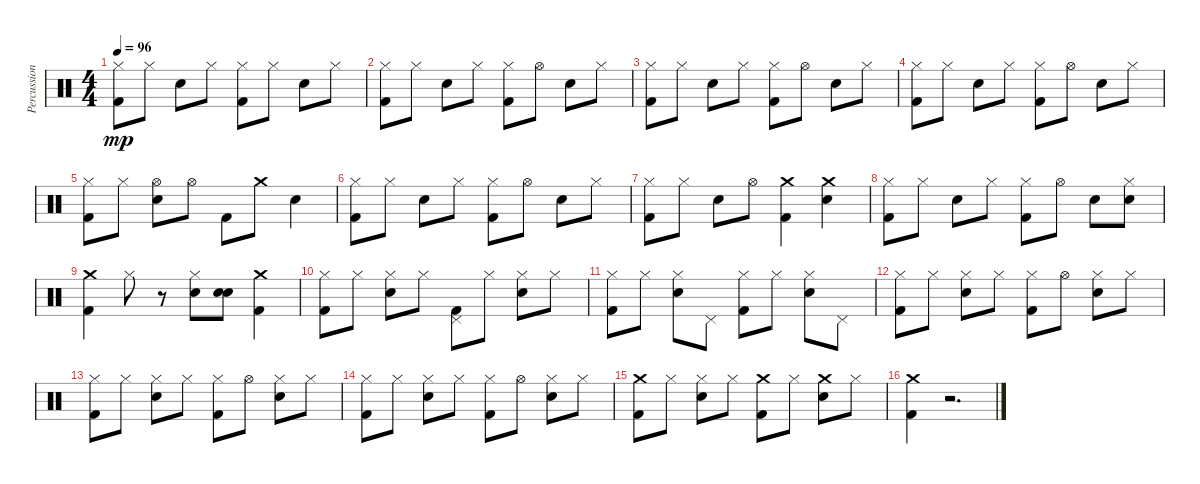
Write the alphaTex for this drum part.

\track ("Percussion" "Percussion") {instrument percussion}
\staff {score}
\articulation defaults
\ts (4 4)
\tempo 96
\clef neutral
\ks c
("Hi-Hat (closed)" "Kick (hit) 2").8{dy mp} "Hi-Hat (closed)".8 "Snare (hit) 2".8 "Hi-Hat (closed)".8 ("Hi-Hat (closed)" "Kick (hit) 2").8 "Hi-Hat (closed)".8 "Snare (hit) 2".8 "Hi-Hat (closed)".8 |
("Hi-Hat (closed)" "Kick (hit) 2").8 "Hi-Hat (closed)".8 "Snare (hit) 2".8 "Hi-Hat (closed)".8 ("Hi-Hat (closed)" "Kick (hit) 2").8 "Hi-Hat (open)".8 "Snare (hit) 2".8 "Hi-Hat (closed)".8 |
("Hi-Hat (closed)" "Kick (hit) 2").8 "Hi-Hat (closed)".8 "Snare (hit) 2".8 "Hi-Hat (closed)".8 ("Hi-Hat (closed)" "Kick (hit) 2").8 "Hi-Hat (open)".8 "Snare (hit) 2".8 "Hi-Hat (closed)".8 |
("Hi-Hat (closed)" "Kick (hit) 2").8 "Hi-Hat (closed)".8 "Snare (hit) 2".8 "Hi-Hat (closed)".8 ("Hi-Hat (closed)" "Kick (hit) 2").8 "Hi-Hat (open)".8 "Snare (hit) 2".8 "Hi-Hat (closed)".8 |
("Hi-Hat (closed)" "Kick (hit) 2").8 "Hi-Hat (closed)".8 ("Hi-Hat (open)" "Snare (hit) 2").8 "Hi-Hat (open)".8 "Kick (hit) 2".8 "Crash medium (hit)".8 "Snare (hit) 2".4 |
("Hi-Hat (closed)" "Kick (hit) 2").8 "Hi-Hat (closed)".8 "Snare (hit) 2".8 "Hi-Hat (closed)".8 ("Hi-Hat (closed)" "Kick (hit) 2").8 "Hi-Hat (open)".8 "Snare (hit) 2".8 "Hi-Hat (closed)".8 |
("Hi-Hat (closed)" "Kick (hit) 2").8 "Hi-Hat (closed)".8 "Snare (hit) 2".8 "Hi-Hat (open)".8 ("Crash medium (hit)" "Kick (hit) 2").4 ("Crash medium (hit)" "Snare (hit) 2").4 |
("Hi-Hat (closed)" "Kick (hit) 2").8 "Hi-Hat (closed)".8 "Snare (hit) 2".8 "Hi-Hat (closed)".8 ("Hi-Hat (closed)" "Kick (hit) 2").8 "Hi-Hat (open)".8 "Snare (hit) 2".8 ("Hi-Hat (closed)" "Snare (hit) 2").8 |
("Crash medium (hit)" "Kick (hit) 2").4 "Hi-Hat (closed)".8 r.8 ("Hi-Hat (closed)" "Snare (hit) 2").8 ("Snare (hit) 2" "Snare (hit) 2").8 ("Crash medium (hit)" "Kick (hit) 2").4 |
("Hi-Hat (closed)" "Kick (hit) 2").8 "Hi-Hat (closed)".8 ("Hi-Hat (closed)" "Snare (hit) 2").8 "Hi-Hat (closed)".8 ("Pedal Hi-Hat (hit)" "Kick (hit) 2").8 "Hi-Hat (closed)".8 ("Hi-Hat (closed)" "Snare (hit) 2").8 "Hi-Hat (closed)".8 |
("Hi-Hat (closed)" "Kick (hit) 2").8 "Hi-Hat (closed)".8 ("Hi-Hat (closed)" "Snare (hit) 2").8 "Pedal Hi-Hat (hit)".8 ("Hi-Hat (closed)" "Kick (hit) 2").8 "Hi-Hat (closed)".8 ("Hi-Hat (closed)" "Snare (hit) 2").8 "Pedal Hi-Hat (hit)".8 |
("Hi-Hat (closed)" "Kick (hit) 2").8 "Hi-Hat (closed)".8 ("Hi-Hat (closed)" "Snare (hit) 2").8 "Hi-Hat (closed)".8 ("Hi-Hat (closed)" "Kick (hit) 2").8 "Hi-Hat (open)".8 ("Hi-Hat (closed)" "Snare (hit) 2").8 "Hi-Hat (closed)".8 |
("Hi-Hat (closed)" "Kick (hit) 2").8 "Hi-Hat (closed)".8 ("Hi-Hat (closed)" "Snare (hit) 2").8 "Hi-Hat (closed)".8 ("Hi-Hat (closed)" "Kick (hit) 2").8 "Hi-Hat (open)".8 ("Hi-Hat (closed)" "Snare (hit) 2").8 "Hi-Hat (closed)".8 |
("Hi-Hat (closed)" "Kick (hit) 2").8 "Hi-Hat (closed)".8 ("Hi-Hat (closed)" "Snare (hit) 2").8 "Hi-Hat (closed)".8 ("Hi-Hat (closed)" "Kick (hit) 2").8 "Hi-Hat (open)".8 ("Hi-Hat (closed)" "Snare (hit) 2").8 "Hi-Hat (closed)".8 |
("Crash medium (hit)" "Kick (hit) 2").8 "Hi-Hat (closed)".8 ("Hi-Hat (closed)" "Snare (hit) 2").8 "Hi-Hat (closed)".8 ("Crash medium (hit)" "Kick (hit) 2").8 "Hi-Hat (closed)".8 ("Crash medium (hit)" "Snare (hit) 2").8 "Hi-Hat (closed)".8 |
("Crash medium (hit)" "Kick (hit) 2").4 r.2{d}
